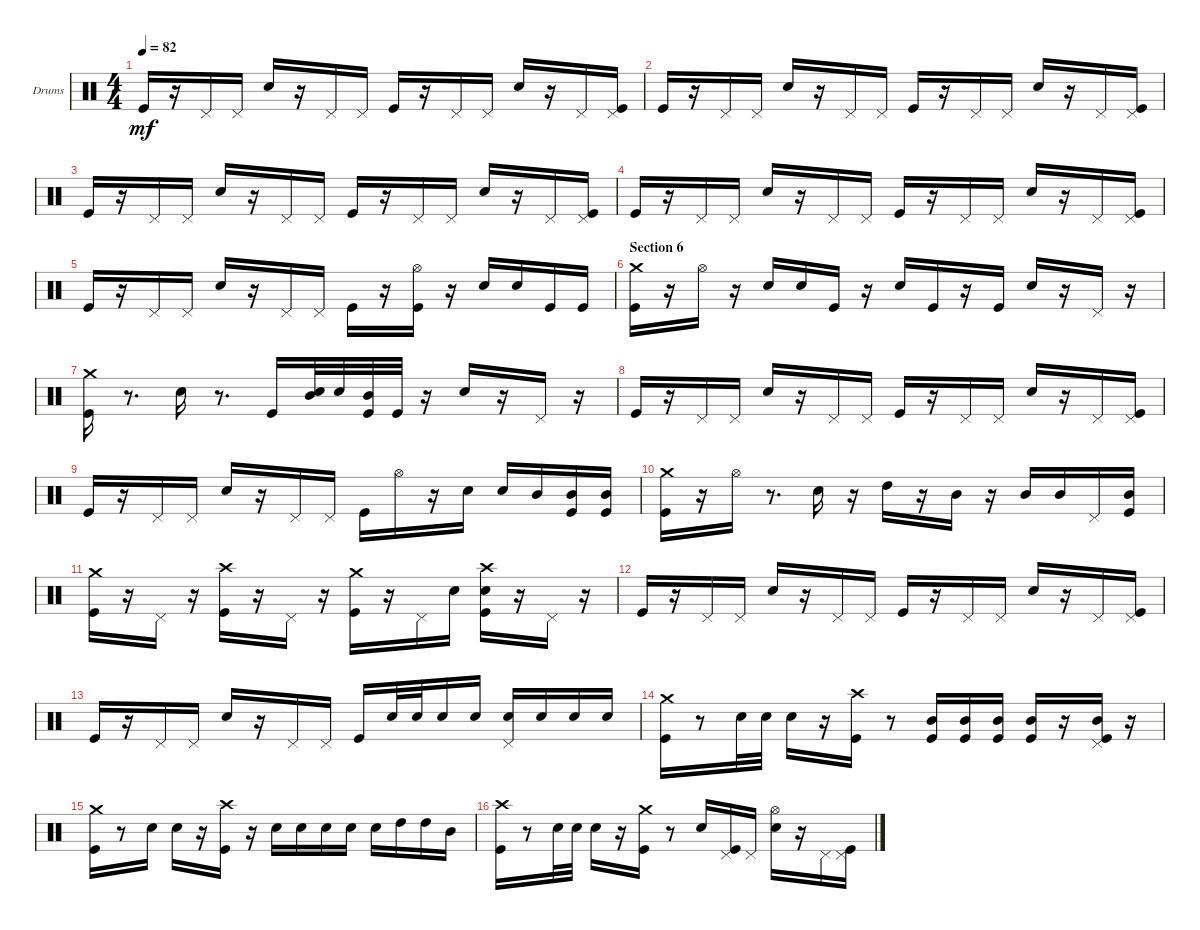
\bracketExtendMode groupsimilarinstruments
\firstSystemTrackNameOrientation horizontal
\otherSystemsTrackNameOrientation horizontal
\track ("Drumkit" "Drums") {instrument percussion}
\staff {score}
\articulation defaults
\ts (4 4)
\tempo 82
\clef neutral
\ks aminor "Kick (hit)".16{dy mf}
r.16 "Pedal Hi-Hat (hit)".16 "Pedal Hi-Hat (hit)".16 "Snare (hit) 2".16 r.16 "Pedal Hi-Hat (hit)".16 "Pedal Hi-Hat (hit)".16 "Kick (hit)".16 r.16 "Pedal Hi-Hat (hit)".16 "Pedal Hi-Hat (hit)".16 "Snare (hit) 2".16 r.16 "Pedal Hi-Hat (hit)".16 ("Kick (hit)" "Pedal Hi-Hat (hit)").16 |
"Kick (hit)".16 r.16 "Pedal Hi-Hat (hit)".16 "Pedal Hi-Hat (hit)".16 "Snare (hit) 2".16 r.16 "Pedal Hi-Hat (hit)".16 "Pedal Hi-Hat (hit)".16 "Kick (hit)".16 r.16 "Pedal Hi-Hat (hit)".16 "Pedal Hi-Hat (hit)".16 "Snare (hit) 2".16 r.16 "Pedal Hi-Hat (hit)".16 ("Kick (hit)" "Pedal Hi-Hat (hit)").16 |
"Kick (hit)".16 r.16 "Pedal Hi-Hat (hit)".16 "Pedal Hi-Hat (hit)".16 "Snare (hit) 2".16 r.16 "Pedal Hi-Hat (hit)".16 "Pedal Hi-Hat (hit)".16 "Kick (hit)".16 r.16 "Pedal Hi-Hat (hit)".16 "Pedal Hi-Hat (hit)".16 "Snare (hit) 2".16 r.16 "Pedal Hi-Hat (hit)".16 ("Kick (hit)" "Pedal Hi-Hat (hit)").16 |
"Kick (hit)".16 r.16 "Pedal Hi-Hat (hit)".16 "Pedal Hi-Hat (hit)".16 "Snare (hit) 2".16 r.16 "Pedal Hi-Hat (hit)".16 "Pedal Hi-Hat (hit)".16 "Kick (hit)".16 r.16 "Pedal Hi-Hat (hit)".16 "Pedal Hi-Hat (hit)".16 "Snare (hit) 2".16 r.16 "Pedal Hi-Hat (hit)".16 ("Kick (hit)" "Pedal Hi-Hat (hit)").16 |
"Kick (hit)".16 r.16 "Pedal Hi-Hat (hit)".16 "Pedal Hi-Hat (hit)".16 "Snare (hit) 2".16 r.16 "Pedal Hi-Hat (hit)".16 "Pedal Hi-Hat (hit)".16 "Kick (hit)".16 r.16 ("Kick (hit)" "Hi-Hat (open)").16 r.16 "Snare (hit) 2".16 "Snare (hit) 2".16 "Kick (hit)".16 "Kick (hit)".16 |
\section ("" "Section 6")
("Kick (hit)" "Crash medium (hit)").16 r.16 "Hi-Hat (open)".16 r.16 "Snare (hit) 2".16 "Snare (hit) 2".16 "Kick (hit)".16 r.16 "Snare (hit) 2".16 "Kick (hit)".16 r.16 "Kick (hit)".16 "Snare (hit) 2".16 r.16 "Pedal Hi-Hat (hit)".16 r.16 |
("Kick (hit)" "Crash medium (hit)").16 r.8{d} "Snare (hit) 2".16 r.8{d} "Kick (hit)".16 ("Mid Tom (hit)" "Snare (hit) 2").32 "Snare (hit) 2".32 ("Mid Tom (hit)" "Kick (hit)").32 "Kick (hit)".32 r.16 "Snare (hit) 2".16 r.16 "Pedal Hi-Hat (hit)".16 r.16 |
"Kick (hit)".16 r.16 "Pedal Hi-Hat (hit)".16 "Pedal Hi-Hat (hit)".16 "Snare (hit) 2".16 r.16 "Pedal Hi-Hat (hit)".16 "Pedal Hi-Hat (hit)".16 "Kick (hit)".16 r.16 "Pedal Hi-Hat (hit)".16 "Pedal Hi-Hat (hit)".16 "Snare (hit) 2".16 r.16 "Pedal Hi-Hat (hit)".16 ("Pedal Hi-Hat (hit)" "Kick (hit)").16 |
"Kick (hit)".16 r.16 "Pedal Hi-Hat (hit)".16 "Pedal Hi-Hat (hit)".16 "Snare (hit) 2".16 r.16 "Pedal Hi-Hat (hit)".16 "Pedal Hi-Hat (hit)".16 "Kick (hit)".16 "Hi-Hat (open)".16 r.16 "Snare (hit) 2".16 "Snare (hit) 2".16 "Mid Tom (hit)".16 ("Kick (hit)" "Mid Tom (hit)").16 ("Kick (hit)" "Mid Tom (hit)").16 |
("Kick (hit)" "Crash medium (hit)").16 r.16 "Hi-Hat (open)".16 r.8{d} "Snare (hit) 2".16 r.16 "High Tom (hit)".16 r.16 "Mid Tom (hit)".16 r.16 "Mid Tom (hit)".16 "Mid Tom (hit)".16 "Pedal Hi-Hat (hit)".16 ("Kick (hit)" "Mid Tom (hit)").16 |
("Kick (hit)" "Crash medium (hit)").16 r.16 "Pedal Hi-Hat (hit)".16 r.16 ("Kick (hit)" "Crash high (hit)").16 r.16 "Pedal Hi-Hat (hit)".16 r.16 ("Kick (hit)" "Crash medium (hit)").16 r.16 "Pedal Hi-Hat (hit)".16 "Snare (hit) 2".16 ("Kick (hit)" "Snare (hit) 2" "Crash high (hit)").16 r.16 "Pedal Hi-Hat (hit)".16 r.16 |
"Kick (hit)".16 r.16 "Pedal Hi-Hat (hit)".16 "Pedal Hi-Hat (hit)".16 "Snare (hit) 2".16 r.16 "Pedal Hi-Hat (hit)".16 "Pedal Hi-Hat (hit)".16 "Kick (hit)".16 r.16 "Pedal Hi-Hat (hit)".16 "Pedal Hi-Hat (hit)".16 "Snare (hit) 2".16 r.16 "Pedal Hi-Hat (hit)".16 ("Kick (hit)" "Pedal Hi-Hat (hit)").16 |
"Kick (hit)".16 r.16 "Pedal Hi-Hat (hit)".16 "Pedal Hi-Hat (hit)".16 "Snare (hit) 2".16 r.16 "Pedal Hi-Hat (hit)".16 "Pedal Hi-Hat (hit)".16 "Kick (hit)".16 "Snare (hit) 2".32 "Snare (hit) 2".32 "Snare (hit) 2".16 "Snare (hit) 2".16 ("Snare (hit) 2" "Pedal Hi-Hat (hit)").16 "Snare (hit) 2".16 "Snare (hit) 2".16 "Snare (hit) 2".16 |
("Kick (hit)" "Crash medium (hit)").16 r.8 "Snare (hit) 2".32 "Snare (hit) 2".32 "Snare (hit) 2".16 r.16 ("Kick (hit)" "Crash high (hit)").16 r.8 ("Kick (hit)" "Mid Tom (hit)").16 ("Kick (hit)" "Mid Tom (hit)").16 ("Kick (hit)" "Mid Tom (hit)").16 ("Kick (hit)" "Mid Tom (hit)").16 r.16 ("Kick (hit)" "Pedal Hi-Hat (hit)" "Mid Tom (hit)").16 r.16 |
("Kick (hit)" "Crash medium (hit)").16 r.8 "Snare (hit) 2".16 "Snare (hit) 2".16 r.16 ("Kick (hit)" "Crash high (hit)").16 r.16 "Snare (hit) 2".16 "Snare (hit) 2".16 "Snare (hit) 2".16 "Snare (hit) 2".16 "Snare (hit) 2".16 "High Tom (hit)".16 "High Tom (hit)".16 "Mid Tom (hit)".16 |
("Kick (hit)" "Crash high (hit)").16 r.8 "Snare (hit) 2".32 "Snare (hit) 2".32 "Snare (hit) 2".16 r.16 ("Kick (hit)" "Crash medium (hit)").16 r.8 "Snare (hit) 2".16 ("Kick (hit)" "Pedal Hi-Hat (hit)").16 "Pedal Hi-Hat (hit)".16 ("Snare (hit) 2" "Hi-Hat (open)").16 r.16 "Pedal Hi-Hat (hit)".16 ("Kick (hit)" "Pedal Hi-Hat (hit)").16
